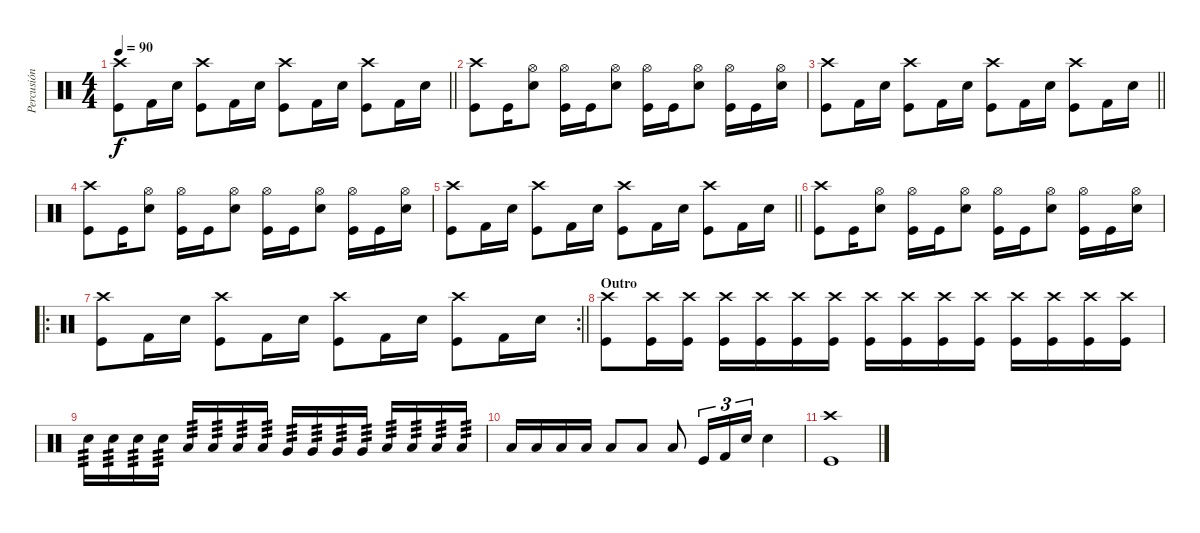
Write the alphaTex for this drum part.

\track ("Percusión" "Percusión") {instrument percussion}
\staff
\articulation defaults
\ts (4 4)
\tempo 90
\clef neutral
\barLineRight lightlight
\ks c
("Kick (hit)" "Crash high (hit)").8{dy f} "Kick (hit) 2".16 "Electric Snare (hit)".16 ("Kick (hit)" "Crash high (hit)").8 "Kick (hit) 2".16 "Electric Snare (hit)".16 ("Kick (hit)" "Crash high (hit)").8 "Kick (hit) 2".16 "Electric Snare (hit)".16 ("Kick (hit)" "Crash high (hit)").8 "Kick (hit) 2".16 "Electric Snare (hit)".16 |
("Kick (hit)" "Crash high (hit)").8 "Kick (hit)".16 ("Hi-Hat (open)" "Electric Snare (hit)").8 ("Kick (hit)" "Hi-Hat (open)").16 "Kick (hit)".16 ("Hi-Hat (open)" "Electric Snare (hit)").8 ("Kick (hit)" "Hi-Hat (open)").16 "Kick (hit)".16 ("Hi-Hat (open)" "Electric Snare (hit)").8 ("Kick (hit)" "Hi-Hat (open)").16 "Kick (hit)".16 ("Hi-Hat (open)" "Electric Snare (hit)").16 |
\barLineRight lightlight
("Kick (hit)" "Crash high (hit)").8 "Kick (hit) 2".16 "Electric Snare (hit)".16 ("Kick (hit)" "Crash high (hit)").8 "Kick (hit) 2".16 "Electric Snare (hit)".16 ("Kick (hit)" "Crash high (hit)").8 "Kick (hit) 2".16 "Electric Snare (hit)".16 ("Kick (hit)" "Crash high (hit)").8 "Kick (hit) 2".16 "Electric Snare (hit)".16 |
("Kick (hit)" "Crash high (hit)").8 "Kick (hit)".16 ("Hi-Hat (open)" "Electric Snare (hit)").8 ("Kick (hit)" "Hi-Hat (open)").16 "Kick (hit)".16 ("Hi-Hat (open)" "Electric Snare (hit)").8 ("Kick (hit)" "Hi-Hat (open)").16 "Kick (hit)".16 ("Hi-Hat (open)" "Electric Snare (hit)").8 ("Kick (hit)" "Hi-Hat (open)").16 "Kick (hit)".16 ("Hi-Hat (open)" "Electric Snare (hit)").16 |
\barLineRight lightlight
("Kick (hit)" "Crash high (hit)").8 "Kick (hit) 2".16 "Electric Snare (hit)".16 ("Kick (hit)" "Crash high (hit)").8 "Kick (hit) 2".16 "Electric Snare (hit)".16 ("Kick (hit)" "Crash high (hit)").8 "Kick (hit) 2".16 "Electric Snare (hit)".16 ("Kick (hit)" "Crash high (hit)").8 "Kick (hit) 2".16 "Electric Snare (hit)".16 |
("Kick (hit)" "Crash high (hit)").8 "Kick (hit)".16 ("Hi-Hat (open)" "Electric Snare (hit)").8 ("Kick (hit)" "Hi-Hat (open)").16 "Kick (hit)".16 ("Hi-Hat (open)" "Electric Snare (hit)").8 ("Kick (hit)" "Hi-Hat (open)").16 "Kick (hit)".16 ("Hi-Hat (open)" "Electric Snare (hit)").8 ("Kick (hit)" "Hi-Hat (open)").16 "Kick (hit)".16 ("Hi-Hat (open)" "Electric Snare (hit)").16 |
\ro
\rc 2
\barLineRight lightlight
("Kick (hit)" "Crash high (hit)").8 "Kick (hit) 2".16 "Electric Snare (hit)".16 ("Kick (hit)" "Crash high (hit)").8 "Kick (hit) 2".16 "Electric Snare (hit)".16 ("Kick (hit)" "Crash high (hit)").8 "Kick (hit) 2".16 "Electric Snare (hit)".16 ("Kick (hit)" "Crash high (hit)").8 "Kick (hit) 2".16 "Electric Snare (hit)".16 |
\section ("" "Outro")
("Kick (hit)" "Crash high (hit)").8 ("Kick (hit)" "Crash high (hit)").16 ("Kick (hit)" "Crash high (hit)").16 ("Kick (hit)" "Crash high (hit)").16 ("Kick (hit)" "Crash high (hit)").16 ("Kick (hit)" "Crash high (hit)").16 ("Kick (hit)" "Crash high (hit)").16 ("Kick (hit)" "Crash high (hit)").16 ("Kick (hit)" "Crash high (hit)").16 ("Kick (hit)" "Crash high (hit)").16 ("Kick (hit)" "Crash high (hit)").16 ("Kick (hit)" "Crash high (hit)").16 ("Kick (hit)" "Crash high (hit)").16 ("Kick (hit)" "Crash high (hit)").16 ("Kick (hit)" "Crash high (hit)").16 |
"Electric Snare (hit)".16{tp 3} "Electric Snare (hit)".16{tp 3} "Electric Snare (hit)".16{tp 3} "Electric Snare (hit)".16{tp 3} "Low Tom (hit)".16{tp 3} "Low Tom (hit)".16{tp 3} "Low Tom (hit)".16{tp 3} "Low Tom (hit)".16{tp 3} "Very Low Tom (hit)".16{tp 3} "Very Low Tom (hit)".16{tp 3} "Very Low Tom (hit)".16{tp 3} "Very Low Tom (hit)".16{tp 3} "Low Floor Tom (hit)".16{tp 3} "Low Floor Tom (hit)".16{tp 3} "Low Floor Tom (hit)".16{tp 3} "Low Floor Tom (hit)".16{tp 3} |
"Low Floor Tom (hit)".16 "Low Floor Tom (hit)".16 "Low Floor Tom (hit)".16 "Low Floor Tom (hit)".16 "Low Floor Tom (hit)".8 "Low Floor Tom (hit)".8 "Low Floor Tom (hit)".8 "Kick (hit)".16{tu (3 2)} "Kick (hit) 2".16{tu (3 2)} "Electric Snare (hit)".16{tu (3 2)} "Electric Snare (hit)".4 |
("Kick (hit)" "Crash high (hit)").1
